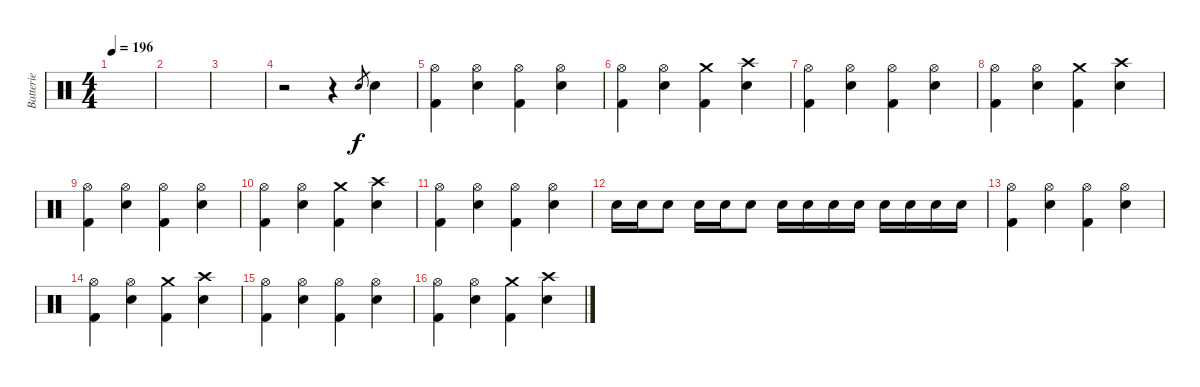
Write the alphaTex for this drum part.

\track ("Batterie" "Batterie") {instrument percussion}
\staff {score}
\articulation defaults
\ts (4 4)
\tempo 196
\clef neutral
\ks c
|
|
|
r.2 r.4 "Electric Snare (hit)".8{gr} "Electric Snare (hit)".4 |
("Hi-Hat (open)" "Kick (hit) 2").4 ("Hi-Hat (open)" "Electric Snare (hit)").4 ("Hi-Hat (open)" "Kick (hit) 2").4 ("Hi-Hat (open)" "Electric Snare (hit)").4 |
("Hi-Hat (open)" "Kick (hit) 2").4 ("Hi-Hat (open)" "Electric Snare (hit)").4 ("Crash medium (hit)" "Kick (hit) 2").4 ("Crash high (hit)" "Electric Snare (hit)").4 |
("Hi-Hat (open)" "Kick (hit) 2").4 ("Hi-Hat (open)" "Electric Snare (hit)").4 ("Hi-Hat (open)" "Kick (hit) 2").4 ("Hi-Hat (open)" "Electric Snare (hit)").4 |
("Hi-Hat (open)" "Kick (hit) 2").4 ("Hi-Hat (open)" "Electric Snare (hit)").4 ("Crash medium (hit)" "Kick (hit) 2").4 ("Crash high (hit)" "Electric Snare (hit)").4 |
("Hi-Hat (open)" "Kick (hit) 2").4 ("Hi-Hat (open)" "Electric Snare (hit)").4 ("Hi-Hat (open)" "Kick (hit) 2").4 ("Hi-Hat (open)" "Electric Snare (hit)").4 |
("Hi-Hat (open)" "Kick (hit) 2").4 ("Hi-Hat (open)" "Electric Snare (hit)").4 ("Crash medium (hit)" "Kick (hit) 2").4 ("Crash high (hit)" "Electric Snare (hit)").4 |
("Hi-Hat (open)" "Kick (hit) 2").4 ("Hi-Hat (open)" "Electric Snare (hit)").4 ("Hi-Hat (open)" "Kick (hit) 2").4 ("Hi-Hat (open)" "Electric Snare (hit)").4 |
"Electric Snare (hit)".16 "Electric Snare (hit)".16 "Electric Snare (hit)".8 "Electric Snare (hit)".16 "Electric Snare (hit)".16 "Electric Snare (hit)".8 "Electric Snare (hit)".16 "Electric Snare (hit)".16 "Electric Snare (hit)".16 "Electric Snare (hit)".16 "Electric Snare (hit)".16 "Electric Snare (hit)".16 "Electric Snare (hit)".16 "Electric Snare (hit)".16 |
("Hi-Hat (open)" "Kick (hit) 2").4 ("Hi-Hat (open)" "Electric Snare (hit)").4 ("Hi-Hat (open)" "Kick (hit) 2").4 ("Hi-Hat (open)" "Electric Snare (hit)").4 |
("Hi-Hat (open)" "Kick (hit) 2").4 ("Hi-Hat (open)" "Electric Snare (hit)").4 ("Crash medium (hit)" "Kick (hit) 2").4 ("Crash high (hit)" "Electric Snare (hit)").4 |
("Hi-Hat (open)" "Kick (hit) 2").4 ("Hi-Hat (open)" "Electric Snare (hit)").4 ("Hi-Hat (open)" "Kick (hit) 2").4 ("Hi-Hat (open)" "Electric Snare (hit)").4 |
("Hi-Hat (open)" "Kick (hit) 2").4 ("Hi-Hat (open)" "Electric Snare (hit)").4 ("Crash medium (hit)" "Kick (hit) 2").4 ("Crash high (hit)" "Electric Snare (hit)").4
